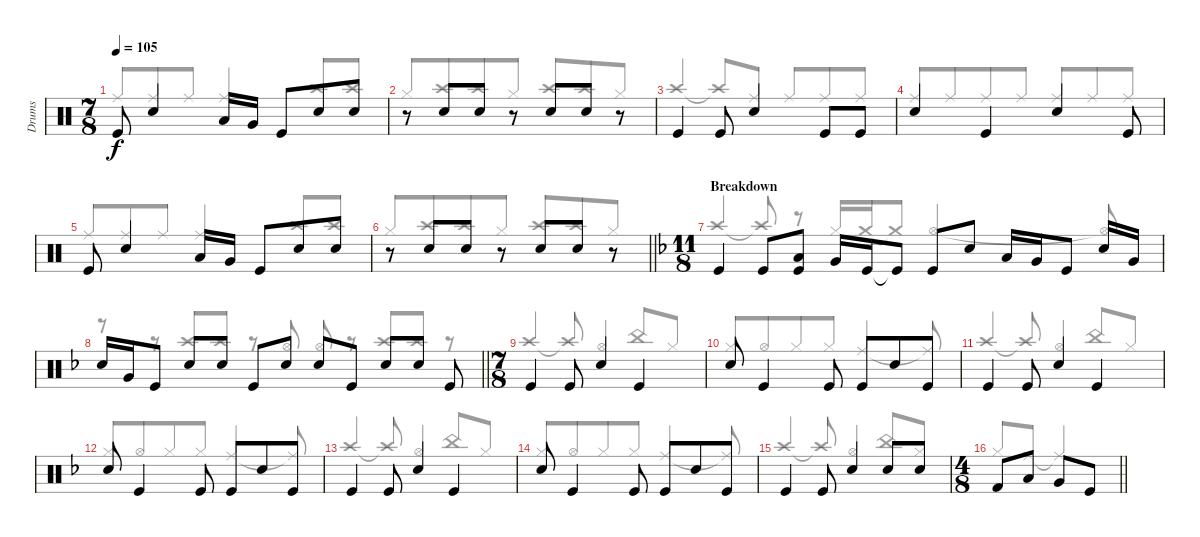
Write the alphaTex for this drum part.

\track ("Drums" "Drums") {instrument percussion}
\staff {score}
\articulation defaults
\voice
\ts (7 8)
\tempo 105
\clef neutral
\ks aminor "Kick (hit)".8{dy f} "Snare (hit) 2".4 "Low Tom (hit)".16 "Very Low Tom (hit)".16 "Kick (hit)".8 "Snare (hit) 2".8 "Snare (hit) 2".8
|
r.8 "Snare (hit) 2".8 "Snare (hit) 2".8 r.8 "Snare (hit) 2".8 "Snare (hit) 2".8 r.8 |
"Kick (hit)".4 "Kick (hit)".8 "Snare (hit) 2".4 "Kick (hit)".8 "Kick (hit)".8 |
"Snare (hit) 2".4 "Kick (hit)".4 "Snare (hit) 2".4 "Kick (hit)".8 |
"Kick (hit)".8 "Snare (hit) 2".4 "Low Tom (hit)".16 "Very Low Tom (hit)".16 "Kick (hit)".8 "Snare (hit) 2".8 "Snare (hit) 2".8 |
\barLineRight lightlight
r.8 "Snare (hit) 2".8 "Snare (hit) 2".8 r.8 "Snare (hit) 2".8 "Snare (hit) 2".8 r.8 |
\ts (11 8)
\section ("" "Breakdown")
\ks dminor "Kick (hit)".4{volume 12} "Kick (hit)".8
("Low Tom (hit)" "Kick (hit)").8 "Very Low Tom (hit)".16 "Kick (hit)".16 "Kick (hit)"{t}.8 "Kick (hit)".8 "Snare (hit) 2".8 "Low Tom (hit)".16 "Very Low Tom (hit)".16 "Kick (hit)".8 "Snare (hit) 2".16 "Very Low Tom (hit)".16 |
\barLineRight lightlight "Snare (hit) 2".16 "Very Low Tom (hit)".16 "Kick (hit)".8 "Snare (hit) 2".8 "Snare (hit) 2".8 "Kick (hit)".8 "Snare (hit) 2".8 "Snare (hit) 2".8 "Kick (hit)".8 "Snare (hit) 2".8 "Snare (hit) 2".8 "Kick (hit)".8
|
\ts (7 8)
"Kick (hit)".4 "Kick (hit)".8 "Snare (hit) 2".4 "Kick (hit)".4 |
"Snare (hit) 2".8 "Kick (hit)".4 "Kick (hit)".8 "Kick (hit)".8 "Snare (hit) 2".8 "Kick (hit)".8 |
"Kick (hit)".4 "Kick (hit)".8 "Snare (hit) 2".4 "Kick (hit)".4 |
"Snare (hit) 2".8 "Kick (hit)".4 "Kick (hit)".8 "Kick (hit)".8 "Snare (hit) 2".8 "Kick (hit)".8 |
"Kick (hit)".4 "Kick (hit)".8 "Snare (hit) 2".4 "Kick (hit)".4 |
"Snare (hit) 2".8 "Kick (hit)".4 "Kick (hit)".8 "Kick (hit)".8 "Snare (hit) 2".8 "Kick (hit)".8 |
"Kick (hit)".4 "Kick (hit)".8 "Snare (hit) 2".4 "Snare (hit) 2".8 "Snare (hit) 2".8 |
\ts (4 8)
\barLineRight lightlight "Kick (hit) 2".8{volume 8} "Low Tom (hit)".8 "Very Low Tom (hit)".8 "Kick (hit)".8
\voice
\clef neutral
\ottava regular
\simile none
\ks aminor "Ride (middle)".8{dy f beam Up} "Ride (middle)".8{beam Up} "Ride (middle)".8{beam Up} "Ride (middle)".4{beam Up} "Crash high (hit)".8{beam Up} "Crash high (hit)".8{beam Up}
|
"Hi-Hat (closed)".8{beam Up} "Crash high (hit)".8{beam Up} "Crash high (hit)".8{beam Up} "Hi-Hat (closed)".8{beam Up} "Crash high (hit)".8{beam Up} "Crash high (hit)".8{beam Up} "Hi-Hat (closed)".8{beam Up} |
"Crash high (hit)".4{beam Up} "Crash high (hit)"{t}.8{beam Up} "Ride (middle)".8{beam Up} "Ride (middle)".8{beam Up} "Ride (middle)".8{beam Up} "Ride (middle)".8{beam Up} |
"Ride (middle)".8{beam Up} "Ride (middle)".8{beam Up} "Ride (middle)".8{beam Up} "Ride (middle)".8{beam Up} "Ride (middle)".8{beam Up} "Ride (middle)".8{beam Up} "Ride (middle)".8{beam Up} |
"Ride (middle)".8{beam Up} "Ride (middle)".8{beam Up} "Ride (middle)".8{beam Up} "Ride (middle)".4{beam Up} "Crash high (hit)".8{beam Up} "Crash high (hit)".8{beam Up} |
\barLineRight lightlight "Hi-Hat (closed)".8{beam Up} "Crash high (hit)".8{beam Up} "Crash high (hit)".8{beam Up} "Hi-Hat (closed)".8{beam Up} "Crash high (hit)".8{beam Up} "Crash high (hit)".8{beam Up} "Hi-Hat (closed)".8{beam Up}
|
\ks dminor "Crash high (hit)".4{beam Up} "Crash high (hit)"{t}.8{beam Up}
r.8 "Hi-Hat (closed)".16{beam Up} "Crash medium (hit)".16{beam Up} "Crash medium (hit)"{t}.8{beam Up} "Hi-Hat (open)".2{beam Up} "Hi-Hat (open)"{t}.8{beam Up} |
\barLineRight lightlight
r.8 r.8 "Crash high (hit)".8{beam Up} "Crash high (hit)".8{beam Up} r.8 "Hi-Hat (open)".8{beam Up} "Hi-Hat (open)".8{beam Up} r.8 "Crash high (hit)".8{beam Up} "Crash high (hit)".8{beam Up} r.8 |
"Crash high (hit)".4{beam Up} "Crash high (hit)"{t}.8{beam Up} "Hi-Hat (open)".4{beam Up} "China (hit)".8{beam Up} "Hi-Hat (closed)".8{beam Up} |
"Hi-Hat (closed)".8{beam Up} "Hi-Hat (open)".8{beam Up} "Hi-Hat (closed)".8{beam Up} "Hi-Hat (closed)".8{beam Up} "Ride (middle)".4{beam Up} "Ride (middle)"{t}.8{beam Up} |
"Crash high (hit)".4{beam Up} "Crash high (hit)"{t}.8{beam Up} "Hi-Hat (open)".4{beam Up} "China (hit)".8{beam Up} "Hi-Hat (closed)".8{beam Up} |
"Hi-Hat (closed)".8{beam Up} "Hi-Hat (open)".8{beam Up} "Hi-Hat (closed)".8{beam Up} "Hi-Hat (closed)".8{beam Up} "Ride (middle)".4{beam Up} "Ride (middle)"{t}.8{beam Up} |
"Crash high (hit)".4{beam Up} "Crash high (hit)"{t}.8{beam Up} "Hi-Hat (open)".4{beam Up} "China (hit)".8{beam Up} "Hi-Hat (closed)".8{beam Up} |
"Hi-Hat (closed)".8{beam Up} "Hi-Hat (open)".8{beam Up} "Hi-Hat (closed)".8{beam Up} "Hi-Hat (closed)".8{beam Up} "Ride (middle)".4{beam Up} "Ride (middle)"{t}.8{beam Up} |
"Crash high (hit)".4{beam Up} "Crash high (hit)"{t}.8{beam Up} "Hi-Hat (open)".4{beam Up} "China (hit)".8{beam Up} "Hi-Hat (closed)".8{beam Up} |
\barLineRight lightlight "Hi-Hat (closed)".8{beam Up} "Ride (middle)".8{beam Up} "Ride (middle)"{t}.4{beam Up}
